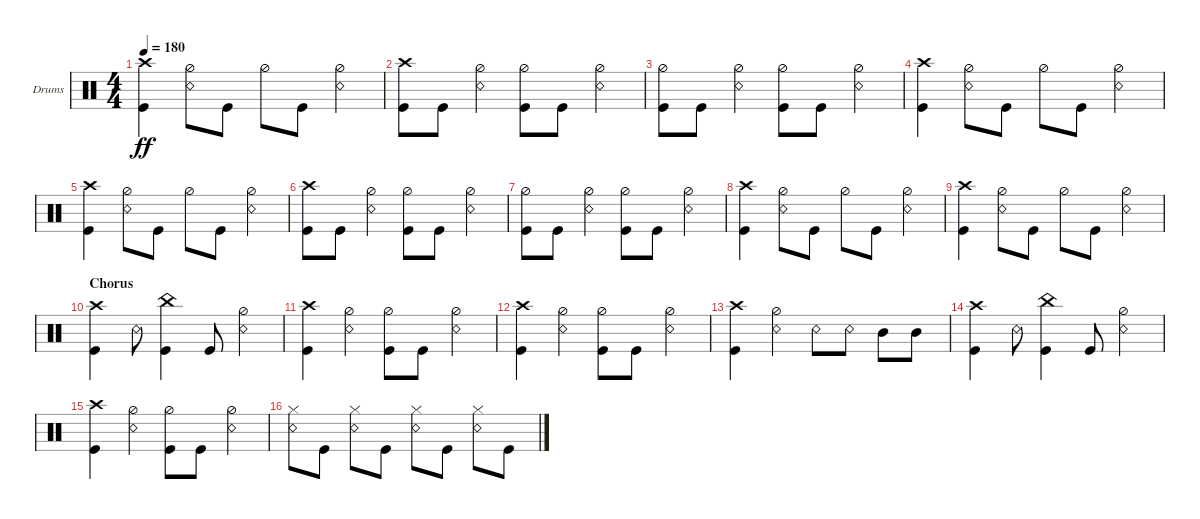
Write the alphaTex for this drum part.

\defaultSystemsLayout 4
\bracketExtendMode groupsimilarinstruments
\firstSystemTrackNameOrientation horizontal
\otherSystemsTrackNameOrientation horizontal
\track ("Drumkit" "Drums") {instrument percussion}
\staff {score}
\articulation defaults
\ts (4 4)
\tempo 180
\clef neutral
\ks c
("Crash high (hit)" "Kick (hit)").4{dy ff} ("Snare (rim shot)" "Hi-Hat (half)").8 "Kick (hit)".8 "Hi-Hat (half)".8 "Kick (hit)".8 ("Snare (rim shot)" "Hi-Hat (half)").4 |
("Kick (hit)" "Crash high (hit)").8 "Kick (hit)".8 ("Hi-Hat (half)" "Snare (rim shot)").4 ("Kick (hit)" "Hi-Hat (half)").8 "Kick (hit)".8 ("Hi-Hat (half)" "Snare (rim shot)").4 |
("Kick (hit)" "Hi-Hat (half)").8 "Kick (hit)".8 ("Hi-Hat (half)" "Snare (rim shot)").4 ("Kick (hit)" "Hi-Hat (half)").8 "Kick (hit)".8 ("Hi-Hat (half)" "Snare (rim shot)").4 |
("Crash high (hit)" "Kick (hit)").4 ("Snare (rim shot)" "Hi-Hat (half)").8 "Kick (hit)".8 "Hi-Hat (half)".8 "Kick (hit)".8 ("Snare (rim shot)" "Hi-Hat (half)").4 |
("Crash high (hit)" "Kick (hit)").4 ("Snare (rim shot)" "Hi-Hat (half)").8 "Kick (hit)".8 "Hi-Hat (half)".8 "Kick (hit)".8 ("Snare (rim shot)" "Hi-Hat (half)").4 |
("Kick (hit)" "Crash high (hit)").8 "Kick (hit)".8 ("Hi-Hat (half)" "Snare (rim shot)").4 ("Kick (hit)" "Hi-Hat (half)").8 "Kick (hit)".8 ("Hi-Hat (half)" "Snare (rim shot)").4 |
("Kick (hit)" "Hi-Hat (half)").8 "Kick (hit)".8 ("Hi-Hat (half)" "Snare (rim shot)").4 ("Kick (hit)" "Hi-Hat (half)").8 "Kick (hit)".8 ("Hi-Hat (half)" "Snare (rim shot)").4 |
("Crash high (hit)" "Kick (hit)").4 ("Snare (rim shot)" "Hi-Hat (half)").8 "Kick (hit)".8 "Hi-Hat (half)".8 "Kick (hit)".8 ("Snare (rim shot)" "Hi-Hat (half)").4 |
("Crash high (hit)" "Kick (hit)").4 ("Snare (rim shot)" "Hi-Hat (half)").8 "Kick (hit)".8 "Hi-Hat (half)".8 "Kick (hit)".8 ("Snare (rim shot)" "Hi-Hat (half)").4 |
\section ("" "Chorus")
("Crash high (hit)" "Kick (hit)").4 "Snare (rim shot)".8 ("China (hit)" "Kick (hit)").4 "Kick (hit)".8 ("Snare (rim shot)" "Hi-Hat (half)").4 |
("Crash high (hit)" "Kick (hit)").4 ("Snare (rim shot)" "Hi-Hat (half)").4 ("Kick (hit)" "Hi-Hat (half)").8 "Kick (hit)".8 ("Snare (rim shot)" "Hi-Hat (half)").4 |
("Crash high (hit)" "Kick (hit)").4 ("Snare (rim shot)" "Hi-Hat (half)").4 ("Kick (hit)" "Hi-Hat (half)").8 "Kick (hit)".8 ("Snare (rim shot)" "Hi-Hat (half)").4 |
("Crash high (hit)" "Kick (hit)").4 ("Snare (rim shot)" "Hi-Hat (half)").4 "Snare (rim shot)".8 "Snare (rim shot)".8 "Mid Tom (hit)".8 "Mid Tom (hit)".8 |
("Crash high (hit)" "Kick (hit)").4 "Snare (rim shot)".8 ("China (hit)" "Kick (hit)").4 "Kick (hit)".8 ("Snare (rim shot)" "Hi-Hat (half)").4 |
("Crash high (hit)" "Kick (hit)").4 ("Snare (rim shot)" "Hi-Hat (half)").4 ("Kick (hit)" "Hi-Hat (half)").8 "Kick (hit)".8 ("Snare (rim shot)" "Hi-Hat (half)").4 |
("Snare (rim shot)" "Hi-Hat (closed)").8 "Kick (hit)".8 ("Snare (rim shot)" "Hi-Hat (closed)").8 "Kick (hit)".8 ("Snare (rim shot)" "Hi-Hat (closed)").8 "Kick (hit)".8 ("Snare (rim shot)" "Hi-Hat (closed)").8 "Kick (hit)".8
